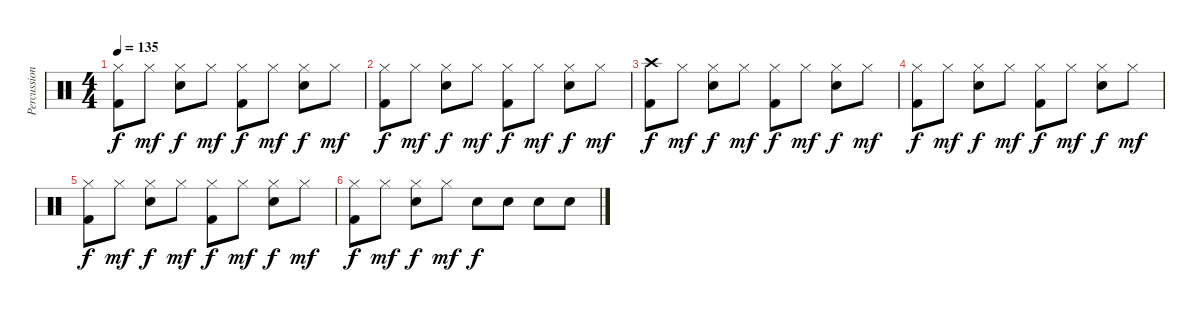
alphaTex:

\track ("Percussion" "Percussion") {instrument percussion}
\staff {score}
\articulation defaults
\ts (4 4)
\tempo 135
\clef neutral
\ks c
("Hi-Hat (closed)" "Kick (hit) 2").8{dy f} "Hi-Hat (closed)".8{dy mf} ("Hi-Hat (closed)" "Snare (hit) 2").8{dy f} "Hi-Hat (closed)".8{dy mf} ("Hi-Hat (closed)" "Kick (hit) 2").8{dy f} "Hi-Hat (closed)".8{dy mf} ("Hi-Hat (closed)" "Snare (hit) 2").8{dy f} "Hi-Hat (closed)".8{dy mf} |
("Hi-Hat (closed)" "Kick (hit) 2").8{dy f} "Hi-Hat (closed)".8{dy mf} ("Hi-Hat (closed)" "Snare (hit) 2").8{dy f} "Hi-Hat (closed)".8{dy mf} ("Hi-Hat (closed)" "Kick (hit) 2").8{dy f} "Hi-Hat (closed)".8{dy mf} ("Hi-Hat (closed)" "Snare (hit) 2").8{dy f} "Hi-Hat (closed)".8{dy mf} |
("Crash high (hit)" "Kick (hit) 2").8{dy f} "Hi-Hat (closed)".8{dy mf} ("Hi-Hat (closed)" "Snare (hit) 2").8{dy f} "Hi-Hat (closed)".8{dy mf} ("Hi-Hat (closed)" "Kick (hit) 2").8{dy f} "Hi-Hat (closed)".8{dy mf} ("Hi-Hat (closed)" "Snare (hit) 2").8{dy f} "Hi-Hat (closed)".8{dy mf} |
("Hi-Hat (closed)" "Kick (hit) 2").8{dy f} "Hi-Hat (closed)".8{dy mf} ("Hi-Hat (closed)" "Snare (hit) 2").8{dy f} "Hi-Hat (closed)".8{dy mf} ("Hi-Hat (closed)" "Kick (hit) 2").8{dy f} "Hi-Hat (closed)".8{dy mf} ("Hi-Hat (closed)" "Snare (hit) 2").8{dy f} "Hi-Hat (closed)".8{dy mf} |
("Hi-Hat (closed)" "Kick (hit) 2").8{dy f} "Hi-Hat (closed)".8{dy mf} ("Hi-Hat (closed)" "Snare (hit) 2").8{dy f} "Hi-Hat (closed)".8{dy mf} ("Hi-Hat (closed)" "Kick (hit) 2").8{dy f} "Hi-Hat (closed)".8{dy mf} ("Hi-Hat (closed)" "Snare (hit) 2").8{dy f} "Hi-Hat (closed)".8{dy mf} |
("Hi-Hat (closed)" "Kick (hit) 2").8{dy f} "Hi-Hat (closed)".8{dy mf} ("Hi-Hat (closed)" "Snare (hit) 2").8{dy f} "Hi-Hat (closed)".8{dy mf} "Snare (hit) 2".8{dy f} "Snare (hit) 2".8 "Snare (hit) 2".8 "Snare (hit) 2".8
